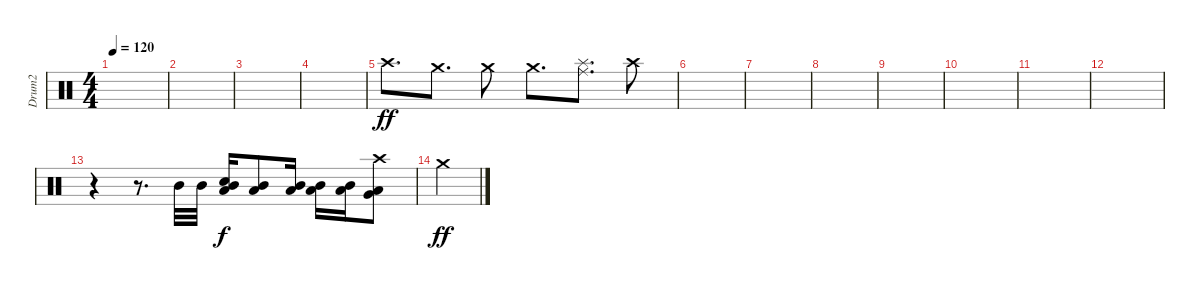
\track ("Drum2" "Drum2") {instrument percussion}
\staff {score}
\articulation defaults
\ts (4 4)
\tempo 120
\clef neutral
\ks c
|
|
|
|
"Crash high (hit)".8{d dy ff} "Crash medium (hit)".8{d} "Crash medium (hit)".8 "Crash medium (hit)".8{d} ("Ride (middle)" "Splash (hit)").8{d} "Crash high (hit)".8 |
|
|
|
|
|
|
|
r.4 r.8{d} "Mid Tom (hit)".32 "Mid Tom (hit)".32 ("Mid Tom (hit)" "Snare (hit) 2" "Low Tom (hit)").16{dy f} ("Mid Tom (hit)" "Low Tom (hit)").8 ("Low Tom (hit)" "Mid Tom (hit)").16 ("Mid Tom (hit)" "Low Tom (hit)").16 ("Mid Tom (hit)" "Low Tom (hit)").16 ("Low Tom (hit)" "Very Low Tom (hit)" "Crash high (hit)").8 |
"Crash medium (hit)".4{dy ff}
